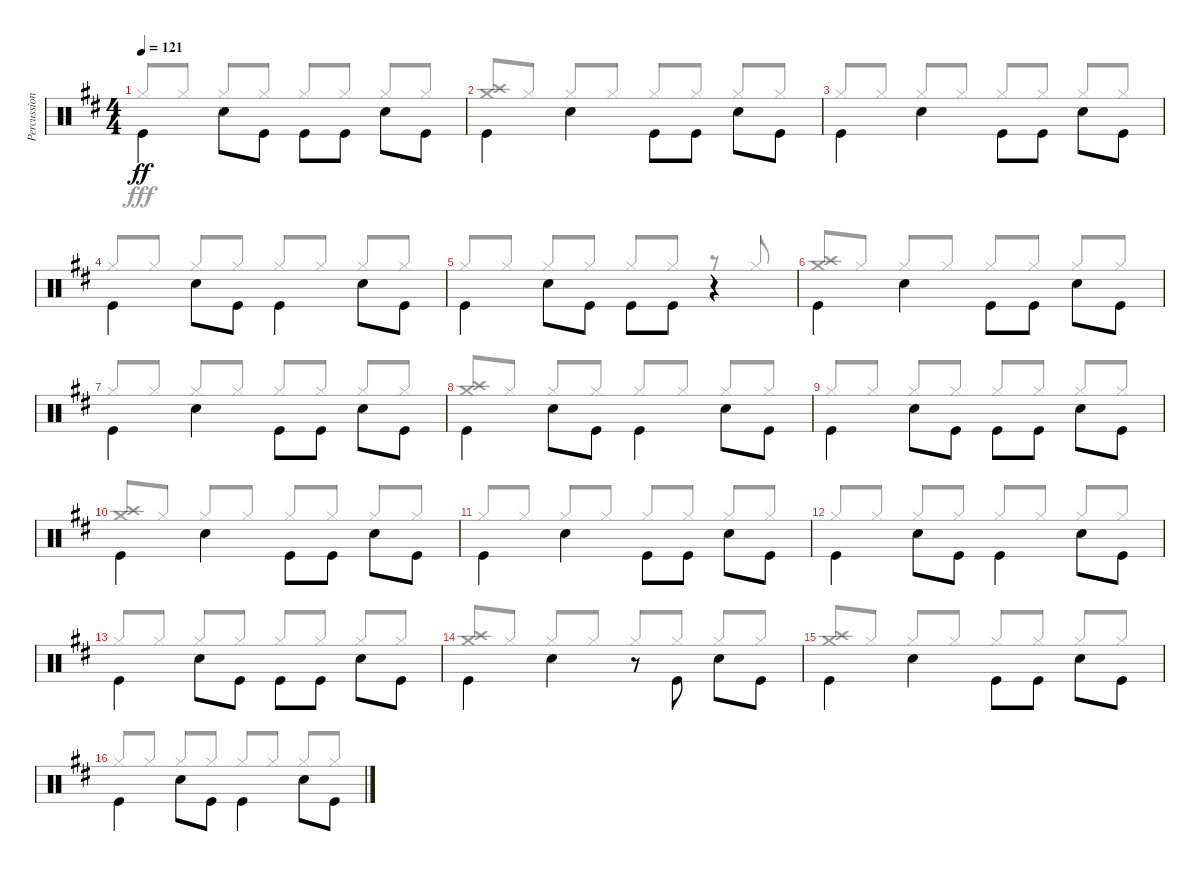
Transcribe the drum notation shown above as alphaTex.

\track ("Percussions" "Percussion") {instrument percussion}
\staff {score}
\articulation defaults
\voice
\ts (4 4)
\tempo 121
\clef neutral
\ks d "Kick (hit)".4{dy ff beam Down} "Snare (hit) 2".8{beam Down} "Kick (hit)".8{beam Down} "Kick (hit)".8{beam Down} "Kick (hit)".8{beam Down} "Snare (hit) 2".8{beam Down} "Kick (hit)".8{beam Down}
|
"Kick (hit)".4{beam Down} "Snare (hit) 2".4{beam Down} "Kick (hit)".8{beam Down} "Kick (hit)".8{beam Down} "Snare (hit) 2".8{beam Down} "Kick (hit)".8{beam Down} |
"Kick (hit)".4{beam Down} "Snare (hit) 2".4{beam Down} "Kick (hit)".8{beam Down} "Kick (hit)".8{beam Down} "Snare (hit) 2".8{beam Down} "Kick (hit)".8{beam Down} |
"Kick (hit)".4{beam Down} "Snare (hit) 2".8{beam Down} "Kick (hit)".8{beam Down} "Kick (hit)".4{beam Down} "Snare (hit) 2".8{beam Down} "Kick (hit)".8{beam Down} |
"Kick (hit)".4{beam Down} "Snare (hit) 2".8{beam Down} "Kick (hit)".8{beam Down} "Kick (hit)".8{beam Down} "Kick (hit)".8{beam Down} r.4 |
"Kick (hit)".4{beam Down} "Snare (hit) 2".4{beam Down} "Kick (hit)".8{beam Down} "Kick (hit)".8{beam Down} "Snare (hit) 2".8{beam Down} "Kick (hit)".8{beam Down} |
"Kick (hit)".4{beam Down} "Snare (hit) 2".4{beam Down} "Kick (hit)".8{beam Down} "Kick (hit)".8{beam Down} "Snare (hit) 2".8{beam Down} "Kick (hit)".8{beam Down} |
"Kick (hit)".4{beam Down} "Snare (hit) 2".8{beam Down} "Kick (hit)".8{beam Down} "Kick (hit)".4{beam Down} "Snare (hit) 2".8{beam Down} "Kick (hit)".8{beam Down} |
"Kick (hit)".4{beam Down} "Snare (hit) 2".8{beam Down} "Kick (hit)".8{beam Down} "Kick (hit)".8{beam Down} "Kick (hit)".8{beam Down} "Snare (hit) 2".8{beam Down} "Kick (hit)".8{beam Down} |
"Kick (hit)".4{beam Down} "Snare (hit) 2".4{beam Down} "Kick (hit)".8{beam Down} "Kick (hit)".8{beam Down} "Snare (hit) 2".8{beam Down} "Kick (hit)".8{beam Down} |
"Kick (hit)".4{beam Down} "Snare (hit) 2".4{beam Down} "Kick (hit)".8{beam Down} "Kick (hit)".8{beam Down} "Snare (hit) 2".8{beam Down} "Kick (hit)".8{beam Down} |
"Kick (hit)".4{beam Down} "Snare (hit) 2".8{beam Down} "Kick (hit)".8{beam Down} "Kick (hit)".4{beam Down} "Snare (hit) 2".8{beam Down} "Kick (hit)".8{beam Down} |
"Kick (hit)".4{beam Down} "Snare (hit) 2".8{beam Down} "Kick (hit)".8{beam Down} "Kick (hit)".8{beam Down} "Kick (hit)".8{beam Down} "Snare (hit) 2".8{beam Down} "Kick (hit)".8{beam Down} |
"Kick (hit)".4{beam Down} "Snare (hit) 2".4{beam Down} r.8 "Kick (hit)".8{beam Down} "Snare (hit) 2".8{beam Down} "Kick (hit)".8{beam Down} |
"Kick (hit)".4{beam Down} "Snare (hit) 2".4{beam Down} "Kick (hit)".8{beam Down} "Kick (hit)".8{beam Down} "Snare (hit) 2".8{beam Down} "Kick (hit)".8{beam Down} |
"Kick (hit)".4{beam Down} "Snare (hit) 2".8{beam Down} "Kick (hit)".8{beam Down} "Kick (hit)".4{beam Down} "Snare (hit) 2".8{beam Down} "Kick (hit)".8{beam Down}
\voice
\clef neutral
\ottava regular
\simile none
\ks d "Hi-Hat (closed)".8{dy fff beam Up} "Hi-Hat (closed)".8 "Hi-Hat (closed)".8{beam Up} "Hi-Hat (closed)".8{beam Up} "Hi-Hat (closed)".8{beam Up} "Hi-Hat (closed)".8{beam Up} "Hi-Hat (closed)".8{beam Up} "Hi-Hat (closed)".8{beam Up}
|
("Crash medium (hit)" "Crash high (hit)").8{beam Up} "Hi-Hat (closed)".8 "Hi-Hat (closed)".8{beam Up} "Hi-Hat (closed)".8{beam Up} "Hi-Hat (closed)".8{beam Up} "Hi-Hat (closed)".8{beam Up} "Hi-Hat (closed)".8{beam Up} "Hi-Hat (closed)".8{beam Up} |
"Hi-Hat (closed)".8{beam Up} "Hi-Hat (closed)".8 "Hi-Hat (closed)".8{beam Up} "Hi-Hat (closed)".8{beam Up} "Hi-Hat (closed)".8{beam Up} "Hi-Hat (closed)".8{beam Up} "Hi-Hat (closed)".8{beam Up} "Hi-Hat (closed)".8{beam Up} |
"Hi-Hat (closed)".8{beam Up} "Hi-Hat (closed)".8 "Hi-Hat (closed)".8{beam Up} "Hi-Hat (closed)".8{beam Up} "Hi-Hat (closed)".8{beam Up} "Hi-Hat (closed)".8{beam Up} "Hi-Hat (closed)".8{beam Up} "Hi-Hat (closed)".8{beam Up} |
"Hi-Hat (closed)".8{beam Up} "Hi-Hat (closed)".8 "Hi-Hat (closed)".8{beam Up} "Hi-Hat (closed)".8{beam Up} "Hi-Hat (closed)".8{beam Up} "Hi-Hat (closed)".8{beam Up} r.8 "Hi-Hat (closed)".8{beam Up} |
("Crash medium (hit)" "Crash high (hit)").8{beam Up} "Hi-Hat (closed)".8 "Hi-Hat (closed)".8{beam Up} "Hi-Hat (closed)".8{beam Up} "Hi-Hat (closed)".8{beam Up} "Hi-Hat (closed)".8{beam Up} "Hi-Hat (closed)".8{beam Up} "Hi-Hat (closed)".8{beam Up} |
"Hi-Hat (closed)".8{beam Up} "Hi-Hat (closed)".8 "Hi-Hat (closed)".8{beam Up} "Hi-Hat (closed)".8{beam Up} "Hi-Hat (closed)".8{beam Up} "Hi-Hat (closed)".8{beam Up} "Hi-Hat (closed)".8{beam Up} "Hi-Hat (closed)".8{beam Up} |
("Crash medium (hit)" "Crash high (hit)").8{beam Up} "Hi-Hat (closed)".8 "Hi-Hat (closed)".8{beam Up} "Hi-Hat (closed)".8{beam Up} "Hi-Hat (closed)".8{beam Up} "Hi-Hat (closed)".8{beam Up} "Hi-Hat (closed)".8{beam Up} "Hi-Hat (closed)".8{beam Up} |
"Hi-Hat (closed)".8{beam Up} "Hi-Hat (closed)".8 "Hi-Hat (closed)".8{beam Up} "Hi-Hat (closed)".8{beam Up} "Hi-Hat (closed)".8{beam Up} "Hi-Hat (closed)".8{beam Up} "Hi-Hat (closed)".8{beam Up} "Hi-Hat (closed)".8{beam Up} |
("Crash medium (hit)" "Crash high (hit)").8{beam Up} "Hi-Hat (closed)".8 "Hi-Hat (closed)".8{beam Up} "Hi-Hat (closed)".8{beam Up} "Hi-Hat (closed)".8{beam Up} "Hi-Hat (closed)".8{beam Up} "Hi-Hat (closed)".8{beam Up} "Hi-Hat (closed)".8{beam Up} |
"Hi-Hat (closed)".8{beam Up} "Hi-Hat (closed)".8 "Hi-Hat (closed)".8{beam Up} "Hi-Hat (closed)".8{beam Up} "Hi-Hat (closed)".8{beam Up} "Hi-Hat (closed)".8{beam Up} "Hi-Hat (closed)".8{beam Up} "Hi-Hat (closed)".8{beam Up} |
"Hi-Hat (closed)".8{beam Up} "Hi-Hat (closed)".8 "Hi-Hat (closed)".8{beam Up} "Hi-Hat (closed)".8{beam Up} "Hi-Hat (closed)".8{beam Up} "Hi-Hat (closed)".8{beam Up} "Hi-Hat (closed)".8{beam Up} "Hi-Hat (closed)".8{beam Up} |
"Hi-Hat (closed)".8{beam Up} "Hi-Hat (closed)".8 "Hi-Hat (closed)".8{beam Up} "Hi-Hat (closed)".8{beam Up} "Hi-Hat (closed)".8{beam Up} "Hi-Hat (closed)".8{beam Up} "Hi-Hat (closed)".8{beam Up} "Hi-Hat (closed)".8{beam Up} |
("Crash medium (hit)" "Crash high (hit)").8{beam Up} "Hi-Hat (closed)".8 "Hi-Hat (closed)".8{beam Up} "Hi-Hat (closed)".8{beam Up} "Hi-Hat (closed)".8{beam Up} "Hi-Hat (closed)".8{beam Up} "Hi-Hat (closed)".8{beam Up} "Hi-Hat (closed)".8{beam Up} |
("Crash medium (hit)" "Crash high (hit)").8{beam Up} "Hi-Hat (closed)".8 "Hi-Hat (closed)".8{beam Up} "Hi-Hat (closed)".8{beam Up} "Hi-Hat (closed)".8{beam Up} "Hi-Hat (closed)".8{beam Up} "Hi-Hat (closed)".8{beam Up} "Hi-Hat (closed)".8{beam Up} |
"Hi-Hat (closed)".8{beam Up} "Hi-Hat (closed)".8 "Hi-Hat (closed)".8{beam Up} "Hi-Hat (closed)".8{beam Up} "Hi-Hat (closed)".8{beam Up} "Hi-Hat (closed)".8{beam Up} "Hi-Hat (closed)".8{beam Up} "Hi-Hat (closed)".8{beam Up}
